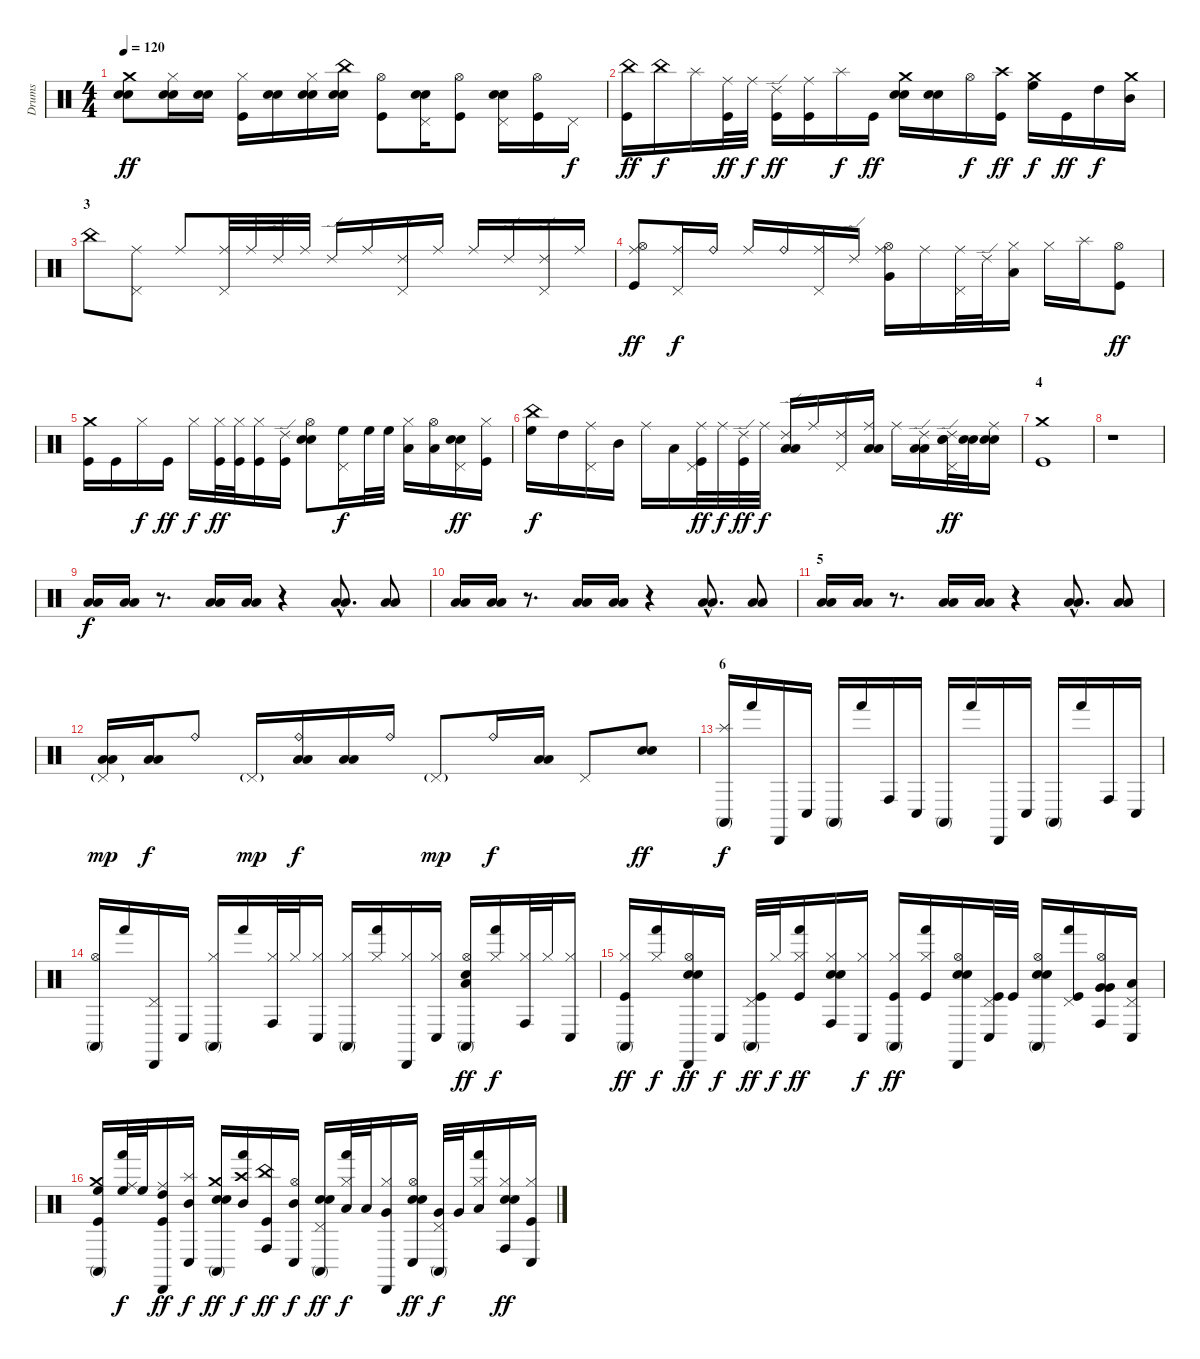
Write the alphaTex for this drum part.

\track ("Drums" "Drums") {instrument percussion}
\staff {score}
\articulation defaults
\ts (4 4)
\tempo 120
\clef neutral
\ks c
("Electric Snare (hit)" "Electric Snare (hit)" "Crash medium (hit)").8{dy ff} ("Electric Snare (hit)" "Electric Snare (hit)" "Hi-Hat (closed)").16 ("Electric Snare (hit)" "Electric Snare (hit)").16 ("Kick (hit)" "Hi-Hat (closed)").16 ("Electric Snare (hit)" "Electric Snare (hit)").16 ("Electric Snare (hit)" "Electric Snare (hit)" "Hi-Hat (closed)").16 ("Electric Snare (hit)" "Electric Snare (hit)" "China (hit)").16 ("Kick (hit)" "Hi-Hat (open)").8 ("Electric Snare (hit)" "Electric Snare (hit)" "Pedal Hi-Hat (hit)").16 ("Kick (hit)" "Hi-Hat (open)").8 ("Electric Snare (hit)" "Electric Snare (hit)" "Pedal Hi-Hat (hit)").16 ("Kick (hit)" "Hi-Hat (open)").16 "Pedal Hi-Hat (hit)".16{dy f} |
("Kick (hit)" "China (hit)").16{dy ff} "China (hit)".16{dy f} "Splash (hit)".16 ("Kick (hit)" "Ride (middle)").32{dy ff} "Ride (middle)".32{dy f} ("Kick (hit)" "Ride (edge) 2").16{dy ff} ("Kick (hit)" "Ride (middle)").16 "Splash (hit)".16{dy f} "Kick (hit)".16{dy ff} ("Electric Snare (hit)" "Electric Snare (hit)" "Crash medium (hit)").16 ("Electric Snare (hit)" "Electric Snare (hit)").16 "Hi-Hat (open)".16{dy f} ("Kick (hit)" "Crash high (hit)").16{dy ff} ("High Floor Tom (hit)" "Crash medium (hit)").16{dy f} "Kick (hit)".16{dy ff} "High Tom (hit)".16{dy f} ("Mid Tom (hit)" "Crash medium (hit)").16 |
\section ("" "3")
"China (hit)".8 ("Pedal Hi-Hat (hit)" "Ride (middle)").8 "Ride (middle)".8 ("Pedal Hi-Hat (hit)" "Ride (middle)").32 "Ride (middle)".32 "Ride (edge) 2".32 "Ride (middle)".32 "Ride (edge) 2".16 "Ride (middle)".16 ("Pedal Hi-Hat (hit)" "Ride (edge) 2").16 "Ride (middle)".16 "Ride (middle)".16 "Ride (edge) 2".16 ("Pedal Hi-Hat (hit)" "Ride (edge) 2").16 "Ride (middle)".16 |
("Kick (hit)" "Hi-Hat (open)" "Ride (middle)").8{dy ff} ("Pedal Hi-Hat (hit)" "Ride (middle)").16{dy f} "Ride (bell)".16 "Ride (middle)".16 "Ride (bell)".16 ("Pedal Hi-Hat (hit)" "Ride (middle)").16 "Ride (edge) 2".16 ("Very Low Tom (hit)" "Hi-Hat (open)" "Ride (middle)").16 "Ride (middle)".16 ("Pedal Hi-Hat (hit)" "Ride (middle)").32 "Ride (edge) 2".32 ("Low Floor Tom (hit)" "Hi-Hat (closed)").16 "Hi-Hat (closed)".16 "Splash (hit)".16 ("Kick (hit)" "Hi-Hat (open)").8{dy ff} |
("Kick (hit)" "Crash medium (hit)").16 "Kick (hit)".16 "Hi-Hat (closed)".16{dy f} "Kick (hit)".16{dy ff} "Hi-Hat (closed)".16{dy f} ("Kick (hit)" "Hi-Hat (closed)").32{dy ff} ("Kick (hit)" "Hi-Hat (closed)").32 ("Kick (hit)" "Hi-Hat (closed)").16 ("Kick (hit)" "Ride (edge) 2").16 ("Electric Snare (hit)" "Electric Snare (hit)" "Hi-Hat (open)").8 ("High Floor Tom (hit)" "Pedal Hi-Hat (hit)").16{dy f} "High Floor Tom (hit)".32 "High Floor Tom (hit)".32 ("Low Tom (hit)" "Hi-Hat (closed)").16 ("Low Floor Tom (hit)" "Hi-Hat (open)").16 ("Electric Snare (hit)" "Electric Snare (hit)" "Pedal Hi-Hat (hit)").16{dy ff} ("Kick (hit)" "Hi-Hat (closed)").16 |
("High Floor Tom (hit)" "China (hit)").16{dy f} "High Tom (hit)".16 ("Pedal Hi-Hat (hit)" "Ride (middle)").16 "Mid Tom (hit)".16 "Ride (middle)".16 "Low Tom (hit)".16 ("Kick (hit)" "Pedal Hi-Hat (hit)" "Ride (middle)").32{dy ff} "Ride (middle)".32{dy f} ("Kick (hit)" "Ride (edge) 2").32{dy ff} "Ride (middle)".32{dy f} ("Low Floor Tom (hit)" "Low Floor Tom (hit)" "Ride (edge) 2").16 "Ride (middle)".16 ("Pedal Hi-Hat (hit)" "Ride (edge) 2").16 ("Low Floor Tom (hit)" "Low Floor Tom (hit)" "Ride (middle)").16 "Ride (middle)".16 ("Low Floor Tom (hit)" "Low Floor Tom (hit)" "Ride (edge) 2").16 ("Electric Snare (hit)" "Electric Snare (hit)" "Pedal Hi-Hat (hit)" "Ride (edge) 2").32{dy ff} ("Electric Snare (hit)" "Electric Snare (hit)").32 ("Electric Snare (hit)" "Electric Snare (hit)" "Ride (middle)").16 |
\section ("" "4")
("Kick (hit)" "Crash medium (hit)").1 |
r.1 |
("Low Floor Tom (hit)" "Low Floor Tom (hit)").16{dy f} ("Low Floor Tom (hit)" "Low Floor Tom (hit)").16 r.8{d} ("Low Floor Tom (hit)" "Low Floor Tom (hit)").16 ("Low Floor Tom (hit)" "Low Floor Tom (hit)").16 r.4 ("Low Floor Tom (hit)"{hac} "Low Floor Tom (hit)"{hac}).8{d} ("Low Floor Tom (hit)" "Low Floor Tom (hit)").8 |
("Low Floor Tom (hit)" "Low Floor Tom (hit)").16 ("Low Floor Tom (hit)" "Low Floor Tom (hit)").16 r.8{d} ("Low Floor Tom (hit)" "Low Floor Tom (hit)").16 ("Low Floor Tom (hit)" "Low Floor Tom (hit)").16 r.4 ("Low Floor Tom (hit)"{hac} "Low Floor Tom (hit)"{hac}).8{d} ("Low Floor Tom (hit)" "Low Floor Tom (hit)").8 |
\section ("" "5")
("Low Floor Tom (hit)" "Low Floor Tom (hit)").16 ("Low Floor Tom (hit)" "Low Floor Tom (hit)").16 r.8{d} ("Low Floor Tom (hit)" "Low Floor Tom (hit)").16 ("Low Floor Tom (hit)" "Low Floor Tom (hit)").16 r.4 ("Low Floor Tom (hit)"{hac} "Low Floor Tom (hit)"{hac}).8{d} ("Low Floor Tom (hit)" "Low Floor Tom (hit)").8 |
("Low Floor Tom (hit)" "Low Floor Tom (hit)" "Pedal Hi-Hat (hit)"{g}).16{dy mp} ("Low Floor Tom (hit)" "Low Floor Tom (hit)").16{dy f} "Ride (bell)".8 "Pedal Hi-Hat (hit)"{g}.16{dy mp} ("Low Floor Tom (hit)" "Low Floor Tom (hit)" "Ride (bell)").16{dy f} ("Low Floor Tom (hit)" "Low Floor Tom (hit)").16 "Ride (bell)".16 "Pedal Hi-Hat (hit)"{g}.8{dy mp} "Ride (bell)".16{dy f} ("Low Floor Tom (hit)" "Low Floor Tom (hit)").16 "Pedal Hi-Hat (hit)".8 ("Electric Snare (hit)" "Electric Snare (hit)").8{dy ff} |
\section ("" "6")
("Conga high (mute)" "Splash (hit)").16{dy f} "Hand (hit)".16 "Cabasa (hit)".16 "Conga low (hit)".16 "Conga high (mute)".16 "Hand (hit)".16 "Conga high (hit)".16 "Conga low (hit)".16 "Conga high (mute)".16 "Hand (hit)".16 "Cabasa (hit)".16 "Conga low (hit)".16 "Conga high (mute)".16 "Hand (hit)".16 "Conga high (hit)".16 "Conga low (hit)".16 |
("Conga high (mute)" "Hi-Hat (open)").16 "Hand (hit)".16 ("Cabasa (hit)" "Pedal Hi-Hat (hit)").16 "Conga low (hit)".16 ("Conga high (mute)" "Hi-Hat (closed)").16 "Hand (hit)".16 ("Conga high (hit)" "Hi-Hat (closed)").32 "Hi-Hat (closed)".32 ("Conga low (hit)" "Hi-Hat (closed)").16 ("Conga high (mute)" "Hi-Hat (closed)").16 ("Hand (hit)" "Hi-Hat (closed)").16 ("Cabasa (hit)" "Hi-Hat (closed)").16 ("Conga low (hit)" "Hi-Hat (closed)").16 ("Electric Snare (hit)" "Low Floor Tom (hit)" "Conga high (mute)" "Hi-Hat (open)").16{dy ff} ("Hand (hit)" "Hi-Hat (closed)").16{dy f} ("Conga high (hit)" "Hi-Hat (closed)").32 "Hi-Hat (closed)".32 ("Conga low (hit)" "Hi-Hat (closed)").16 |
("Kick (hit)" "Conga high (mute)" "Hi-Hat (closed)").16{dy ff} ("Hand (hit)" "Hi-Hat (closed)").16{dy f} ("Electric Snare (hit)" "Electric Snare (hit)" "Cabasa (hit)" "Hi-Hat (open)").16{dy ff} "Conga low (hit)".16{dy f} ("Kick (hit)" "Conga high (mute)" "Pedal Hi-Hat (hit)").32{dy ff} "Hi-Hat (closed)".32{dy f} ("Kick (hit)" "Hand (hit)" "Hi-Hat (closed)").16{dy ff} ("Electric Snare (hit)" "Electric Snare (hit)" "Conga high (hit)" "Hi-Hat (closed)").16 ("Conga low (hit)" "Hi-Hat (closed)").16{dy f} ("Kick (hit)" "Conga high (mute)" "Hi-Hat (closed)").16{dy ff} ("Kick (hit)" "Hand (hit)" "Hi-Hat (closed)").16 ("Electric Snare (hit)" "Electric Snare (hit)" "Cabasa (hit)" "Hi-Hat (open)").16 ("Kick (hit)" "Conga low (hit)" "Pedal Hi-Hat (hit)").32 "Kick (hit)".32 ("Electric Snare (hit)" "Electric Snare (hit)" "Conga high (mute)" "Hi-Hat (open)").16 ("Kick (hit)" "Hand (hit)" "Pedal Hi-Hat (hit)").16 ("Very Low Tom (hit)" "Very Low Tom (hit)" "Conga high (hit)" "Hi-Hat (open)").16 ("Low Floor Tom (hit)" "Conga low (hit)" "Pedal Hi-Hat (hit)").16 |
("Kick (hit)" "High Floor Tom (hit)" "Conga high (mute)" "Crash medium (hit)").16 ("High Floor Tom (hit)" "Hand (hit)" "Ride (middle)").32{dy f} "High Floor Tom (hit)".32 ("Kick (hit)" "High Tom (hit)" "Cabasa (hit)" "Ride (middle)").16{dy ff} ("Mid Tom (hit)" "Conga low (hit)" "Splash (hit)").16{dy f} ("Electric Snare (hit)" "Electric Snare (hit)" "Conga high (mute)" "Crash medium (hit)").16{dy ff} ("Mid Tom (hit)" "Hand (hit)" "Crash high (hit)").16{dy f} ("Kick (hit)" "Conga high (hit)" "China (hit)").16{dy ff} ("Mid Tom (hit)" "Conga low (hit)" "Hi-Hat (open)").16{dy f} ("Electric Snare (hit)" "Electric Snare (hit)" "Conga high (mute)" "Pedal Hi-Hat (hit)").16{dy ff} ("Low Tom (hit)" "Hand (hit)" "Hi-Hat (closed)").32{dy f} "Low Tom (hit)".32 ("Very Low Tom (hit)" "Cabasa (hit)" "Hi-Hat (closed)").16 ("Electric Snare (hit)" "Electric Snare (hit)" "Conga low (hit)" "Hi-Hat (open)").16{dy ff} ("Very Low Tom (hit)" "Conga high (mute)" "Pedal Hi-Hat (hit)").32{dy f} "Very Low Tom (hit)".32 ("Low Floor Tom (hit)" "Hand (hit)" "Hi-Hat (closed)").16 ("Electric Snare (hit)" "Electric Snare (hit)" "Conga high (hit)" "Hi-Hat (closed)").16{dy ff} ("Kick (hit)" "Conga low (hit)" "Hi-Hat (closed)").16
